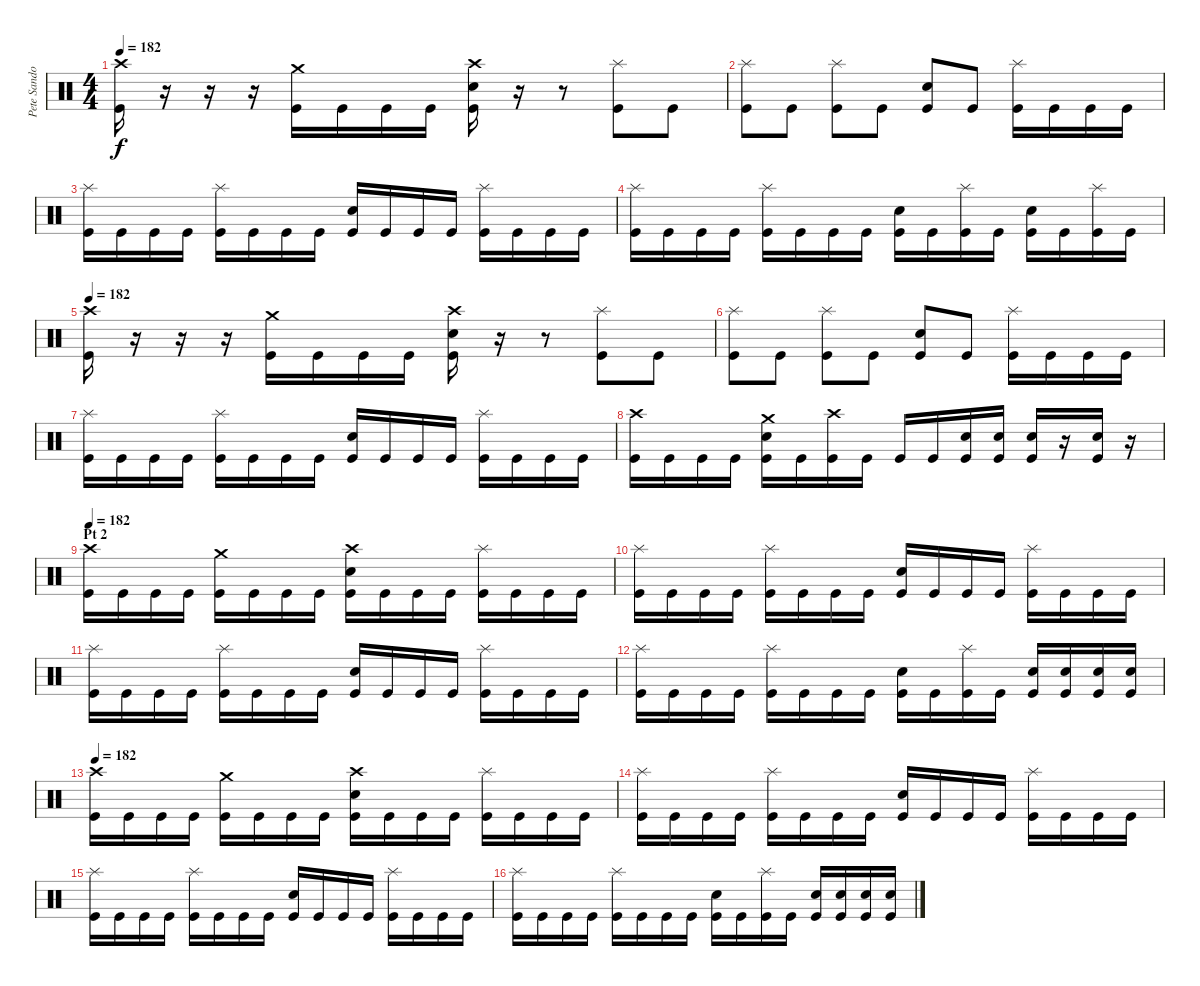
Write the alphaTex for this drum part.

\track ("Pete Sandoval" "Pete Sando") {instrument percussion}
\staff {score}
\articulation defaults
\ts (4 4)
\tempo 182
\clef neutral
\ks c
("Crash high (hit)" "Kick (hit)").16{dy f} r.16 r.16 r.16 ("Crash medium (hit)" "Kick (hit)").16 "Kick (hit)".16 "Kick (hit)".16 "Kick (hit)".16 ("Crash high (hit)" "Electric Snare (hit)" "Kick (hit)").16 r.16 r.8 ("Splash (hit)" "Kick (hit)").8 "Kick (hit)".8 |
("Splash (hit)" "Kick (hit)").8 "Kick (hit)".8 ("Splash (hit)" "Kick (hit)").8 "Kick (hit)".8 ("Electric Snare (hit)" "Kick (hit)").8 "Kick (hit)".8 ("Splash (hit)" "Kick (hit)").16 "Kick (hit)".16 "Kick (hit)".16 "Kick (hit)".16 |
("Splash (hit)" "Kick (hit)").16 "Kick (hit)".16 "Kick (hit)".16 "Kick (hit)".16 ("Splash (hit)" "Kick (hit)").16 "Kick (hit)".16 "Kick (hit)".16 "Kick (hit)".16 ("Electric Snare (hit)" "Kick (hit)").16 "Kick (hit)".16 "Kick (hit)".16 "Kick (hit)".16 ("Splash (hit)" "Kick (hit)").16 "Kick (hit)".16 "Kick (hit)".16 "Kick (hit)".16 |
("Splash (hit)" "Kick (hit)").16 "Kick (hit)".16 "Kick (hit)".16 "Kick (hit)".16 ("Splash (hit)" "Kick (hit)").16 "Kick (hit)".16 "Kick (hit)".16 "Kick (hit)".16 ("Electric Snare (hit)" "Kick (hit)").16 "Kick (hit)".16 ("Splash (hit)" "Kick (hit)").16 "Kick (hit)".16 ("Electric Snare (hit)" "Kick (hit)").16 "Kick (hit)".16 ("Splash (hit)" "Kick (hit)").16 "Kick (hit)".16 |
\tempo 182
("Crash high (hit)" "Kick (hit)").16 r.16 r.16 r.16 ("Crash medium (hit)" "Kick (hit)").16 "Kick (hit)".16 "Kick (hit)".16 "Kick (hit)".16 ("Crash high (hit)" "Electric Snare (hit)" "Kick (hit)").16 r.16 r.8 ("Splash (hit)" "Kick (hit)").8 "Kick (hit)".8 |
("Splash (hit)" "Kick (hit)").8 "Kick (hit)".8 ("Splash (hit)" "Kick (hit)").8 "Kick (hit)".8 ("Electric Snare (hit)" "Kick (hit)").8 "Kick (hit)".8 ("Splash (hit)" "Kick (hit)").16 "Kick (hit)".16 "Kick (hit)".16 "Kick (hit)".16 |
("Splash (hit)" "Kick (hit)").16 "Kick (hit)".16 "Kick (hit)".16 "Kick (hit)".16 ("Splash (hit)" "Kick (hit)").16 "Kick (hit)".16 "Kick (hit)".16 "Kick (hit)".16 ("Electric Snare (hit)" "Kick (hit)").16 "Kick (hit)".16 "Kick (hit)".16 "Kick (hit)".16 ("Splash (hit)" "Kick (hit)").16 "Kick (hit)".16 "Kick (hit)".16 "Kick (hit)".16 |
("Crash high (hit)" "Kick (hit)").16 "Kick (hit)".16 "Kick (hit)".16 "Kick (hit)".16 ("Crash medium (hit)" "Electric Snare (hit)" "Kick (hit)").16 "Kick (hit)".16 ("Crash high (hit)" "Kick (hit)").16 "Kick (hit)".16 "Kick (hit)".16 "Kick (hit)".16 ("Electric Snare (hit)" "Kick (hit)").16 ("Electric Snare (hit)" "Kick (hit)").16 ("Electric Snare (hit)" "Kick (hit)").16 r.16 ("Electric Snare (hit)" "Kick (hit)").16 r.16 |
\section ("" "Pt 2")
\tempo 182
("Crash high (hit)" "Kick (hit)").16 "Kick (hit)".16 "Kick (hit)".16 "Kick (hit)".16 ("Crash medium (hit)" "Kick (hit)").16 "Kick (hit)".16 "Kick (hit)".16 "Kick (hit)".16 ("Crash high (hit)" "Electric Snare (hit)" "Kick (hit)").16 "Kick (hit)".16 "Kick (hit)".16 "Kick (hit)".16 ("Splash (hit)" "Kick (hit)").16 "Kick (hit)".16 "Kick (hit)".16 "Kick (hit)".16 |
("Splash (hit)" "Kick (hit)").16 "Kick (hit)".16 "Kick (hit)".16 "Kick (hit)".16 ("Splash (hit)" "Kick (hit)").16 "Kick (hit)".16 "Kick (hit)".16 "Kick (hit)".16 ("Electric Snare (hit)" "Kick (hit)").16 "Kick (hit)".16 "Kick (hit)".16 "Kick (hit)".16 ("Splash (hit)" "Kick (hit)").16 "Kick (hit)".16 "Kick (hit)".16 "Kick (hit)".16 |
("Splash (hit)" "Kick (hit)").16 "Kick (hit)".16 "Kick (hit)".16 "Kick (hit)".16 ("Splash (hit)" "Kick (hit)").16 "Kick (hit)".16 "Kick (hit)".16 "Kick (hit)".16 ("Electric Snare (hit)" "Kick (hit)").16 "Kick (hit)".16 "Kick (hit)".16 "Kick (hit)".16 ("Splash (hit)" "Kick (hit)").16 "Kick (hit)".16 "Kick (hit)".16 "Kick (hit)".16 |
("Splash (hit)" "Kick (hit)").16 "Kick (hit)".16 "Kick (hit)".16 "Kick (hit)".16 ("Splash (hit)" "Kick (hit)").16 "Kick (hit)".16 "Kick (hit)".16 "Kick (hit)".16 ("Electric Snare (hit)" "Kick (hit)").16 "Kick (hit)".16 ("Splash (hit)" "Kick (hit)").16 "Kick (hit)".16 ("Electric Snare (hit)" "Kick (hit)").16 ("Electric Snare (hit)" "Kick (hit)").16 ("Electric Snare (hit)" "Kick (hit)").16 ("Electric Snare (hit)" "Kick (hit)").16 |
\tempo 182
("Crash high (hit)" "Kick (hit)").16 "Kick (hit)".16 "Kick (hit)".16 "Kick (hit)".16 ("Crash medium (hit)" "Kick (hit)").16 "Kick (hit)".16 "Kick (hit)".16 "Kick (hit)".16 ("Crash high (hit)" "Electric Snare (hit)" "Kick (hit)").16 "Kick (hit)".16 "Kick (hit)".16 "Kick (hit)".16 ("Splash (hit)" "Kick (hit)").16 "Kick (hit)".16 "Kick (hit)".16 "Kick (hit)".16 |
("Splash (hit)" "Kick (hit)").16 "Kick (hit)".16 "Kick (hit)".16 "Kick (hit)".16 ("Splash (hit)" "Kick (hit)").16 "Kick (hit)".16 "Kick (hit)".16 "Kick (hit)".16 ("Electric Snare (hit)" "Kick (hit)").16 "Kick (hit)".16 "Kick (hit)".16 "Kick (hit)".16 ("Splash (hit)" "Kick (hit)").16 "Kick (hit)".16 "Kick (hit)".16 "Kick (hit)".16 |
("Splash (hit)" "Kick (hit)").16 "Kick (hit)".16 "Kick (hit)".16 "Kick (hit)".16 ("Splash (hit)" "Kick (hit)").16 "Kick (hit)".16 "Kick (hit)".16 "Kick (hit)".16 ("Electric Snare (hit)" "Kick (hit)").16 "Kick (hit)".16 "Kick (hit)".16 "Kick (hit)".16 ("Splash (hit)" "Kick (hit)").16 "Kick (hit)".16 "Kick (hit)".16 "Kick (hit)".16 |
("Splash (hit)" "Kick (hit)").16 "Kick (hit)".16 "Kick (hit)".16 "Kick (hit)".16 ("Splash (hit)" "Kick (hit)").16 "Kick (hit)".16 "Kick (hit)".16 "Kick (hit)".16 ("Electric Snare (hit)" "Kick (hit)").16 "Kick (hit)".16 ("Splash (hit)" "Kick (hit)").16 "Kick (hit)".16 ("Electric Snare (hit)" "Kick (hit)").16 ("Electric Snare (hit)" "Kick (hit)").16 ("Electric Snare (hit)" "Kick (hit)").16 ("Electric Snare (hit)" "Kick (hit)").16
